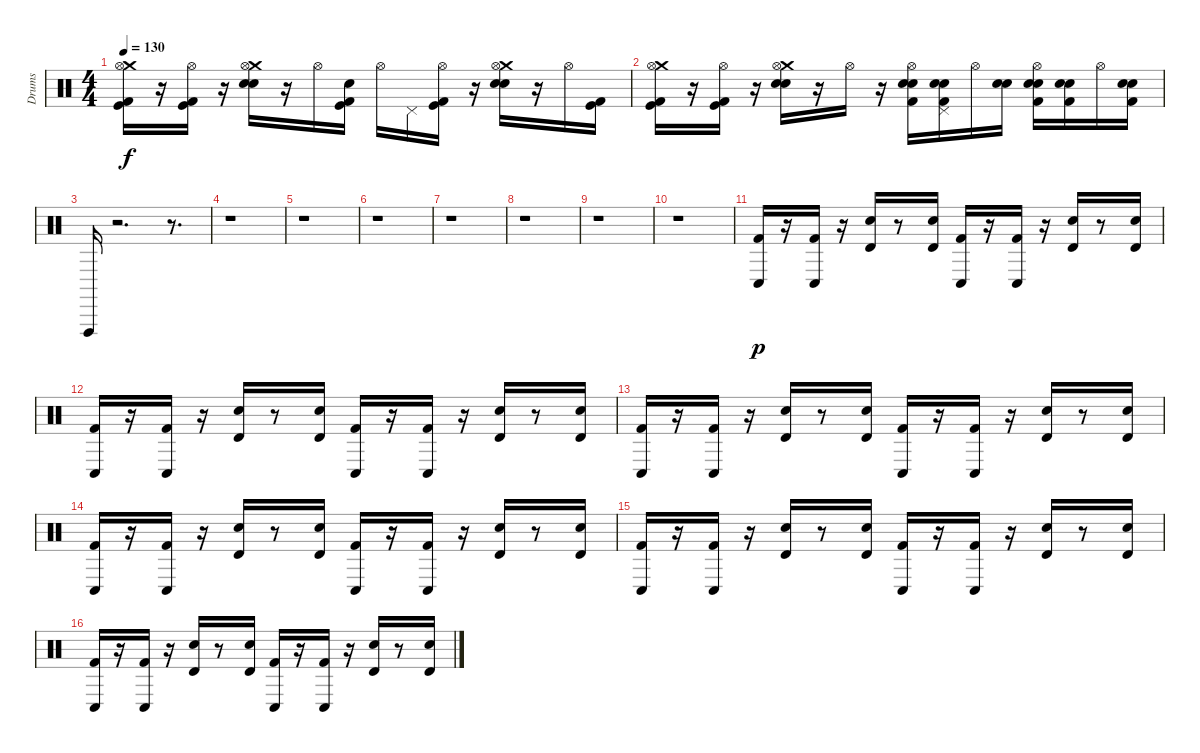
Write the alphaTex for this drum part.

\track ("Drums" "Drums") {instrument percussion}
\staff {score}
\articulation defaults
\ts (4 4)
\tempo 130
\clef neutral
\ks c
("Kick (hit) 2" "Kick (hit)" "Crash medium (hit)" "Hi-Hat (open)").16{dy f} r.16 ("Kick (hit) 2" "Kick (hit)" "Hi-Hat (open)").16 r.16 ("Snare (hit) 2" "Electric Snare (hit)" "Crash medium (hit)" "Hi-Hat (open)").16 r.16 "Hi-Hat (open)".16 ("Kick (hit) 2" "Kick (hit)" "Electric Snare (hit)").16 "Hi-Hat (open)".16 "Pedal Hi-Hat (hit)".16 ("Kick (hit) 2" "Kick (hit)" "Hi-Hat (open)").16 r.16 ("Snare (hit) 2" "Electric Snare (hit)" "Crash medium (hit)" "Hi-Hat (open)").16 r.16 "Hi-Hat (open)".16 ("Kick (hit) 2" "Kick (hit)").16 |
("Kick (hit) 2" "Kick (hit)" "Crash medium (hit)" "Hi-Hat (open)").16 r.16 ("Kick (hit) 2" "Kick (hit)" "Hi-Hat (open)").16 r.16 ("Snare (hit) 2" "Electric Snare (hit)" "Crash medium (hit)" "Hi-Hat (open)").16 r.16 "Hi-Hat (open)".16 r.16 ("Hi-Hat (open)" "Electric Snare (hit)" "Snare (hit) 2" "Kick (hit) 2").16 ("Electric Snare (hit)" "Snare (hit) 2" "Kick (hit) 2" "Pedal Hi-Hat (hit)").16 "Hi-Hat (open)".16 ("Electric Snare (hit)" "Electric Snare (hit)").16 ("Hi-Hat (open)" "Snare (hit) 2" "Electric Snare (hit)" "Kick (hit) 2").16 ("Electric Snare (hit)" "Snare (hit) 2" "Kick (hit) 2").16 "Hi-Hat (open)".16 ("Electric Snare (hit)" "Snare (hit) 2" "Kick (hit) 2").16 |
"Vibraslap (hit)".16 r.2{d} r.8{d} |
r.1 |
r.1 |
r.1 |
r.1 |
r.1 |
r.1 |
r.1 |
("Kick (hit) 2" "Conga low (hit)").16{dy p} r.16 ("Kick (hit) 2" "Conga low (hit)").16 r.16 ("Snare (hit) 2" "Timbale high (hit)").16 r.8 ("Snare (hit) 2" "Timbale high (hit)").16 ("Kick (hit) 2" "Conga low (hit)").16 r.16 ("Kick (hit) 2" "Conga low (hit)").16 r.16 ("Snare (hit) 2" "Timbale high (hit)").16 r.8 ("Snare (hit) 2" "Timbale high (hit)").16 |
("Kick (hit) 2" "Conga low (hit)").16 r.16 ("Kick (hit) 2" "Conga low (hit)").16 r.16 ("Snare (hit) 2" "Timbale high (hit)").16 r.8 ("Snare (hit) 2" "Timbale high (hit)").16 ("Kick (hit) 2" "Conga low (hit)").16 r.16 ("Kick (hit) 2" "Conga low (hit)").16 r.16 ("Snare (hit) 2" "Timbale high (hit)").16 r.8 ("Snare (hit) 2" "Timbale high (hit)").16 |
("Kick (hit) 2" "Conga low (hit)").16 r.16 ("Kick (hit) 2" "Conga low (hit)").16 r.16 ("Snare (hit) 2" "Timbale high (hit)").16 r.8 ("Snare (hit) 2" "Timbale high (hit)").16 ("Kick (hit) 2" "Conga low (hit)").16 r.16 ("Kick (hit) 2" "Conga low (hit)").16 r.16 ("Snare (hit) 2" "Timbale high (hit)").16 r.8 ("Snare (hit) 2" "Timbale high (hit)").16 |
("Kick (hit) 2" "Conga low (hit)").16 r.16 ("Kick (hit) 2" "Conga low (hit)").16 r.16 ("Snare (hit) 2" "Timbale high (hit)").16 r.8 ("Snare (hit) 2" "Timbale high (hit)").16 ("Kick (hit) 2" "Conga low (hit)").16 r.16 ("Kick (hit) 2" "Conga low (hit)").16 r.16 ("Snare (hit) 2" "Timbale high (hit)").16 r.8 ("Snare (hit) 2" "Timbale high (hit)").16 |
("Kick (hit) 2" "Conga low (hit)").16 r.16 ("Kick (hit) 2" "Conga low (hit)").16 r.16 ("Snare (hit) 2" "Timbale high (hit)").16 r.8 ("Snare (hit) 2" "Timbale high (hit)").16 ("Kick (hit) 2" "Conga low (hit)").16 r.16 ("Kick (hit) 2" "Conga low (hit)").16 r.16 ("Snare (hit) 2" "Timbale high (hit)").16 r.8 ("Snare (hit) 2" "Timbale high (hit)").16 |
("Kick (hit) 2" "Conga low (hit)").16 r.16 ("Kick (hit) 2" "Conga low (hit)").16 r.16 ("Snare (hit) 2" "Timbale high (hit)").16 r.8 ("Snare (hit) 2" "Timbale high (hit)").16 ("Kick (hit) 2" "Conga low (hit)").16 r.16 ("Kick (hit) 2" "Conga low (hit)").16 r.16 ("Snare (hit) 2" "Timbale high (hit)").16 r.8 ("Snare (hit) 2" "Timbale high (hit)").16
